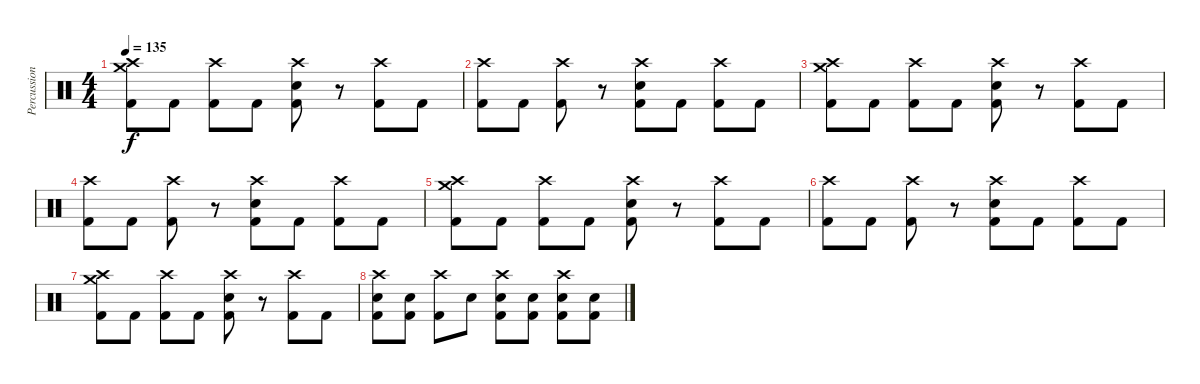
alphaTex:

\track ("Percussion" "Percussion") {instrument percussion}
\staff {score}
\articulation defaults
\ts (4 4)
\tempo 135
\clef neutral
\ks c
("Crash high (hit)" "Crash medium (hit)" "Kick (hit) 2").8{dy f} "Kick (hit) 2".8 ("Crash high (hit)" "Kick (hit) 2").8 "Kick (hit) 2".8 ("Crash high (hit)" "Snare (hit) 2" "Kick (hit) 2").8 r.8 ("Crash high (hit)" "Kick (hit) 2").8 "Kick (hit) 2".8 |
("Crash high (hit)" "Kick (hit) 2").8 "Kick (hit) 2".8 ("Crash high (hit)" "Kick (hit) 2").8 r.8 ("Crash high (hit)" "Snare (hit) 2" "Kick (hit) 2").8 "Kick (hit) 2".8 ("Crash high (hit)" "Kick (hit) 2").8 "Kick (hit) 2".8 |
("Crash high (hit)" "Crash medium (hit)" "Kick (hit) 2").8 "Kick (hit) 2".8 ("Crash high (hit)" "Kick (hit) 2").8 "Kick (hit) 2".8 ("Crash high (hit)" "Snare (hit) 2" "Kick (hit) 2").8 r.8 ("Crash high (hit)" "Kick (hit) 2").8 "Kick (hit) 2".8 |
("Crash high (hit)" "Kick (hit) 2").8 "Kick (hit) 2".8 ("Crash high (hit)" "Kick (hit) 2").8 r.8 ("Crash high (hit)" "Snare (hit) 2" "Kick (hit) 2").8 "Kick (hit) 2".8 ("Crash high (hit)" "Kick (hit) 2").8 "Kick (hit) 2".8 |
("Crash high (hit)" "Crash medium (hit)" "Kick (hit) 2").8 "Kick (hit) 2".8 ("Crash high (hit)" "Kick (hit) 2").8 "Kick (hit) 2".8 ("Crash high (hit)" "Snare (hit) 2" "Kick (hit) 2").8 r.8 ("Crash high (hit)" "Kick (hit) 2").8 "Kick (hit) 2".8 |
("Crash high (hit)" "Kick (hit) 2").8 "Kick (hit) 2".8 ("Crash high (hit)" "Kick (hit) 2").8 r.8 ("Crash high (hit)" "Snare (hit) 2" "Kick (hit) 2").8 "Kick (hit) 2".8 ("Crash high (hit)" "Kick (hit) 2").8 "Kick (hit) 2".8 |
("Crash high (hit)" "Crash medium (hit)" "Kick (hit) 2").8 "Kick (hit) 2".8 ("Crash high (hit)" "Kick (hit) 2").8 "Kick (hit) 2".8 ("Crash high (hit)" "Snare (hit) 2" "Kick (hit) 2").8 r.8 ("Crash high (hit)" "Kick (hit) 2").8 "Kick (hit) 2".8 |
("Crash high (hit)" "Snare (hit) 2" "Kick (hit) 2").8 ("Snare (hit) 2" "Kick (hit) 2").8 ("Crash high (hit)" "Kick (hit) 2").8 "Snare (hit) 2".8 ("Crash high (hit)" "Snare (hit) 2" "Kick (hit) 2").8 ("Snare (hit) 2" "Kick (hit) 2").8 ("Crash high (hit)" "Snare (hit) 2" "Kick (hit) 2").8 ("Snare (hit) 2" "Kick (hit) 2").8
